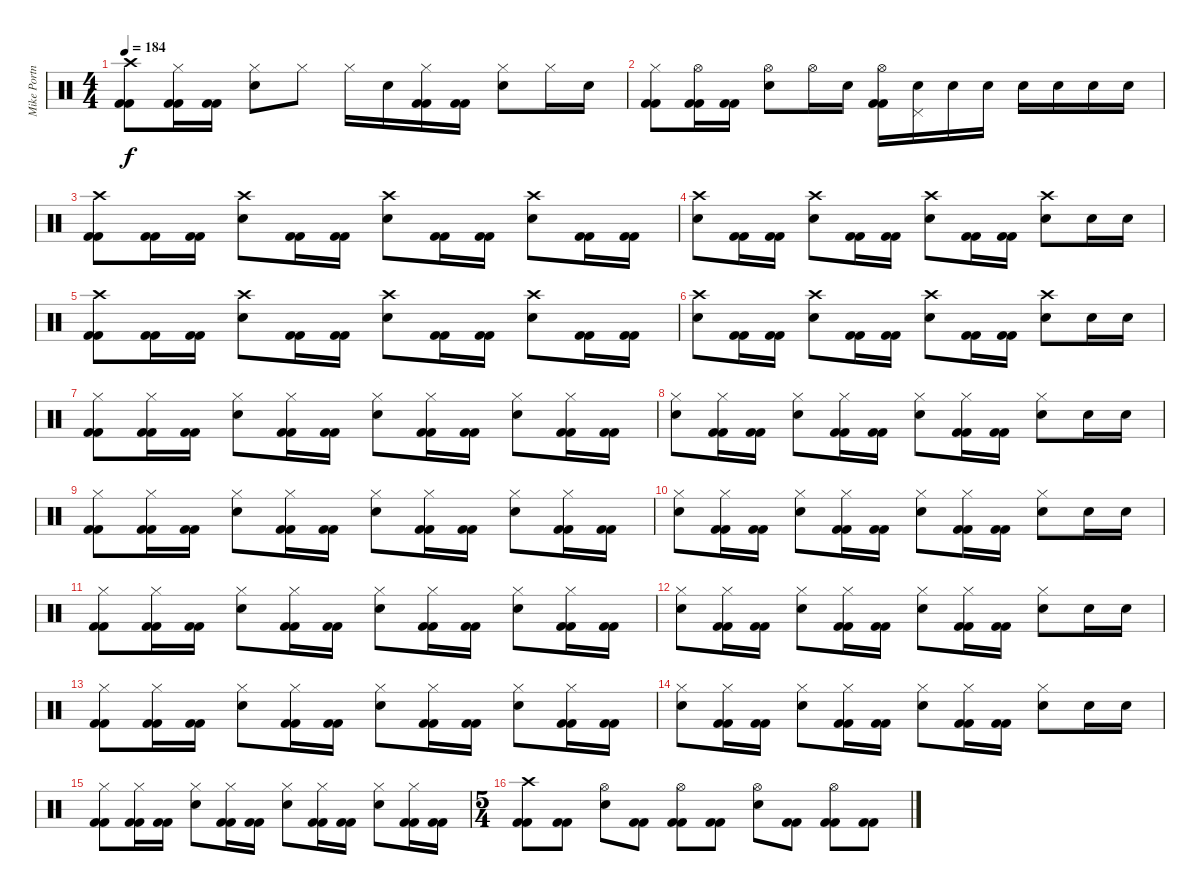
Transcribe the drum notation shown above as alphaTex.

\track ("Mike Portnoy - Drum" "Mike Portn") {instrument percussion}
\staff {score}
\articulation defaults
\ts (4 4)
\tempo 184
\clef neutral
\ks c
("Crash high (hit)" "Kick (hit) 2" "Kick (hit) 2").8{dy f} ("Hi-Hat (closed)" "Kick (hit) 2" "Kick (hit) 2").16 ("Kick (hit) 2" "Kick (hit) 2").16 ("Hi-Hat (closed)" "Snare (hit) 2").8 "Hi-Hat (closed)".8 "Hi-Hat (closed)".16 "Snare (hit) 2".16 ("Hi-Hat (closed)" "Kick (hit) 2" "Kick (hit) 2").16 ("Kick (hit) 2" "Kick (hit) 2").16 ("Hi-Hat (closed)" "Snare (hit) 2").8 "Hi-Hat (closed)".16 "Snare (hit) 2".16 |
("Hi-Hat (closed)" "Kick (hit) 2" "Kick (hit) 2").8 ("Hi-Hat (open)" "Kick (hit) 2" "Kick (hit) 2").16 ("Kick (hit) 2" "Kick (hit) 2").16 ("Hi-Hat (open)" "Snare (hit) 2").8 "Hi-Hat (open)".16 "Snare (hit) 2".16 ("Hi-Hat (open)" "Kick (hit) 2" "Kick (hit) 2").16 ("Pedal Hi-Hat (hit)" "Snare (hit) 2").16 "Snare (hit) 2".16 "Snare (hit) 2".16 "Snare (hit) 2".16 "Snare (hit) 2".16 "Snare (hit) 2".16 "Snare (hit) 2".16 |
("Crash high (hit)" "Kick (hit) 2" "Kick (hit) 2").8 ("Kick (hit) 2" "Kick (hit) 2").16 ("Kick (hit) 2" "Kick (hit) 2").16 ("Crash high (hit)" "Snare (hit) 2").8 ("Kick (hit) 2" "Kick (hit) 2").16 ("Kick (hit) 2" "Kick (hit) 2").16 ("Crash high (hit)" "Snare (hit) 2").8 ("Kick (hit) 2" "Kick (hit) 2").16 ("Kick (hit) 2" "Kick (hit) 2").16 ("Crash high (hit)" "Snare (hit) 2").8 ("Kick (hit) 2" "Kick (hit) 2").16 ("Kick (hit) 2" "Kick (hit) 2").16 |
("Crash high (hit)" "Snare (hit) 2").8 ("Kick (hit) 2" "Kick (hit) 2").16 ("Kick (hit) 2" "Kick (hit) 2").16 ("Crash high (hit)" "Snare (hit) 2").8 ("Kick (hit) 2" "Kick (hit) 2").16 ("Kick (hit) 2" "Kick (hit) 2").16 ("Crash high (hit)" "Snare (hit) 2").8 ("Kick (hit) 2" "Kick (hit) 2").16 ("Kick (hit) 2" "Kick (hit) 2").16 ("Crash high (hit)" "Snare (hit) 2").8 "Snare (hit) 2".16 "Snare (hit) 2".16 |
("Crash high (hit)" "Kick (hit) 2" "Kick (hit) 2").8 ("Kick (hit) 2" "Kick (hit) 2").16 ("Kick (hit) 2" "Kick (hit) 2").16 ("Crash high (hit)" "Snare (hit) 2").8 ("Kick (hit) 2" "Kick (hit) 2").16 ("Kick (hit) 2" "Kick (hit) 2").16 ("Crash high (hit)" "Snare (hit) 2").8 ("Kick (hit) 2" "Kick (hit) 2").16 ("Kick (hit) 2" "Kick (hit) 2").16 ("Crash high (hit)" "Snare (hit) 2").8 ("Kick (hit) 2" "Kick (hit) 2").16 ("Kick (hit) 2" "Kick (hit) 2").16 |
("Crash high (hit)" "Snare (hit) 2").8 ("Kick (hit) 2" "Kick (hit) 2").16 ("Kick (hit) 2" "Kick (hit) 2").16 ("Crash high (hit)" "Snare (hit) 2").8 ("Kick (hit) 2" "Kick (hit) 2").16 ("Kick (hit) 2" "Kick (hit) 2").16 ("Crash high (hit)" "Snare (hit) 2").8 ("Kick (hit) 2" "Kick (hit) 2").16 ("Kick (hit) 2" "Kick (hit) 2").16 ("Crash high (hit)" "Snare (hit) 2").8 "Snare (hit) 2".16 "Snare (hit) 2".16 |
("Hi-Hat (closed)" "Kick (hit) 2" "Kick (hit) 2").8 ("Hi-Hat (closed)" "Kick (hit) 2" "Kick (hit) 2").16 ("Kick (hit) 2" "Kick (hit) 2").16 ("Hi-Hat (closed)" "Snare (hit) 2").8 ("Hi-Hat (closed)" "Kick (hit) 2" "Kick (hit) 2").16 ("Kick (hit) 2" "Kick (hit) 2").16 ("Hi-Hat (closed)" "Snare (hit) 2").8 ("Hi-Hat (closed)" "Kick (hit) 2" "Kick (hit) 2").16 ("Kick (hit) 2" "Kick (hit) 2").16 ("Hi-Hat (closed)" "Snare (hit) 2").8 ("Hi-Hat (closed)" "Kick (hit) 2" "Kick (hit) 2").16 ("Kick (hit) 2" "Kick (hit) 2").16 |
("Hi-Hat (closed)" "Snare (hit) 2").8 ("Hi-Hat (closed)" "Kick (hit) 2" "Kick (hit) 2").16 ("Kick (hit) 2" "Kick (hit) 2").16 ("Hi-Hat (closed)" "Snare (hit) 2").8 ("Hi-Hat (closed)" "Kick (hit) 2" "Kick (hit) 2").16 ("Kick (hit) 2" "Kick (hit) 2").16 ("Hi-Hat (closed)" "Snare (hit) 2").8 ("Hi-Hat (closed)" "Kick (hit) 2" "Kick (hit) 2").16 ("Kick (hit) 2" "Kick (hit) 2").16 ("Hi-Hat (closed)" "Snare (hit) 2").8 "Snare (hit) 2".16 "Snare (hit) 2".16 |
("Hi-Hat (closed)" "Kick (hit) 2" "Kick (hit) 2").8 ("Hi-Hat (closed)" "Kick (hit) 2" "Kick (hit) 2").16 ("Kick (hit) 2" "Kick (hit) 2").16 ("Hi-Hat (closed)" "Snare (hit) 2").8 ("Hi-Hat (closed)" "Kick (hit) 2" "Kick (hit) 2").16 ("Kick (hit) 2" "Kick (hit) 2").16 ("Hi-Hat (closed)" "Snare (hit) 2").8 ("Hi-Hat (closed)" "Kick (hit) 2" "Kick (hit) 2").16 ("Kick (hit) 2" "Kick (hit) 2").16 ("Hi-Hat (closed)" "Snare (hit) 2").8 ("Hi-Hat (closed)" "Kick (hit) 2" "Kick (hit) 2").16 ("Kick (hit) 2" "Kick (hit) 2").16 |
("Hi-Hat (closed)" "Snare (hit) 2").8 ("Hi-Hat (closed)" "Kick (hit) 2" "Kick (hit) 2").16 ("Kick (hit) 2" "Kick (hit) 2").16 ("Hi-Hat (closed)" "Snare (hit) 2").8 ("Hi-Hat (closed)" "Kick (hit) 2" "Kick (hit) 2").16 ("Kick (hit) 2" "Kick (hit) 2").16 ("Hi-Hat (closed)" "Snare (hit) 2").8 ("Hi-Hat (closed)" "Kick (hit) 2" "Kick (hit) 2").16 ("Kick (hit) 2" "Kick (hit) 2").16 ("Hi-Hat (closed)" "Snare (hit) 2").8 "Snare (hit) 2".16 "Snare (hit) 2".16 |
("Hi-Hat (closed)" "Kick (hit) 2" "Kick (hit) 2").8 ("Hi-Hat (closed)" "Kick (hit) 2" "Kick (hit) 2").16 ("Kick (hit) 2" "Kick (hit) 2").16 ("Hi-Hat (closed)" "Snare (hit) 2").8 ("Hi-Hat (closed)" "Kick (hit) 2" "Kick (hit) 2").16 ("Kick (hit) 2" "Kick (hit) 2").16 ("Hi-Hat (closed)" "Snare (hit) 2").8 ("Hi-Hat (closed)" "Kick (hit) 2" "Kick (hit) 2").16 ("Kick (hit) 2" "Kick (hit) 2").16 ("Hi-Hat (closed)" "Snare (hit) 2").8 ("Hi-Hat (closed)" "Kick (hit) 2" "Kick (hit) 2").16 ("Kick (hit) 2" "Kick (hit) 2").16 |
("Hi-Hat (closed)" "Snare (hit) 2").8 ("Hi-Hat (closed)" "Kick (hit) 2" "Kick (hit) 2").16 ("Kick (hit) 2" "Kick (hit) 2").16 ("Hi-Hat (closed)" "Snare (hit) 2").8 ("Hi-Hat (closed)" "Kick (hit) 2" "Kick (hit) 2").16 ("Kick (hit) 2" "Kick (hit) 2").16 ("Hi-Hat (closed)" "Snare (hit) 2").8 ("Hi-Hat (closed)" "Kick (hit) 2" "Kick (hit) 2").16 ("Kick (hit) 2" "Kick (hit) 2").16 ("Hi-Hat (closed)" "Snare (hit) 2").8 "Snare (hit) 2".16 "Snare (hit) 2".16 |
("Hi-Hat (closed)" "Kick (hit) 2" "Kick (hit) 2").8 ("Hi-Hat (closed)" "Kick (hit) 2" "Kick (hit) 2").16 ("Kick (hit) 2" "Kick (hit) 2").16 ("Hi-Hat (closed)" "Snare (hit) 2").8 ("Hi-Hat (closed)" "Kick (hit) 2" "Kick (hit) 2").16 ("Kick (hit) 2" "Kick (hit) 2").16 ("Hi-Hat (closed)" "Snare (hit) 2").8 ("Hi-Hat (closed)" "Kick (hit) 2" "Kick (hit) 2").16 ("Kick (hit) 2" "Kick (hit) 2").16 ("Hi-Hat (closed)" "Snare (hit) 2").8 ("Hi-Hat (closed)" "Kick (hit) 2" "Kick (hit) 2").16 ("Kick (hit) 2" "Kick (hit) 2").16 |
("Hi-Hat (closed)" "Snare (hit) 2").8 ("Hi-Hat (closed)" "Kick (hit) 2" "Kick (hit) 2").16 ("Kick (hit) 2" "Kick (hit) 2").16 ("Hi-Hat (closed)" "Snare (hit) 2").8 ("Hi-Hat (closed)" "Kick (hit) 2" "Kick (hit) 2").16 ("Kick (hit) 2" "Kick (hit) 2").16 ("Hi-Hat (closed)" "Snare (hit) 2").8 ("Hi-Hat (closed)" "Kick (hit) 2" "Kick (hit) 2").16 ("Kick (hit) 2" "Kick (hit) 2").16 ("Hi-Hat (closed)" "Snare (hit) 2").8 "Snare (hit) 2".16 "Snare (hit) 2".16 |
("Hi-Hat (closed)" "Kick (hit) 2" "Kick (hit) 2").8 ("Hi-Hat (closed)" "Kick (hit) 2" "Kick (hit) 2").16 ("Kick (hit) 2" "Kick (hit) 2").16 ("Hi-Hat (closed)" "Snare (hit) 2").8 ("Hi-Hat (closed)" "Kick (hit) 2" "Kick (hit) 2").16 ("Kick (hit) 2" "Kick (hit) 2").16 ("Hi-Hat (closed)" "Snare (hit) 2").8 ("Hi-Hat (closed)" "Kick (hit) 2" "Kick (hit) 2").16 ("Kick (hit) 2" "Kick (hit) 2").16 ("Hi-Hat (closed)" "Snare (hit) 2").8 ("Hi-Hat (closed)" "Kick (hit) 2" "Kick (hit) 2").16 ("Kick (hit) 2" "Kick (hit) 2").16 |
\ts (5 4)
("Crash high (hit)" "Kick (hit) 2" "Kick (hit) 2").8 ("Kick (hit) 2" "Kick (hit) 2").8 ("Hi-Hat (open)" "Snare (hit) 2").8 ("Kick (hit) 2" "Kick (hit) 2").8 ("Hi-Hat (open)" "Kick (hit) 2" "Kick (hit) 2").8 ("Kick (hit) 2" "Kick (hit) 2").8 ("Hi-Hat (open)" "Snare (hit) 2").8 ("Kick (hit) 2" "Kick (hit) 2").8 ("Hi-Hat (open)" "Kick (hit) 2" "Kick (hit) 2").8 ("Kick (hit) 2" "Kick (hit) 2").8
